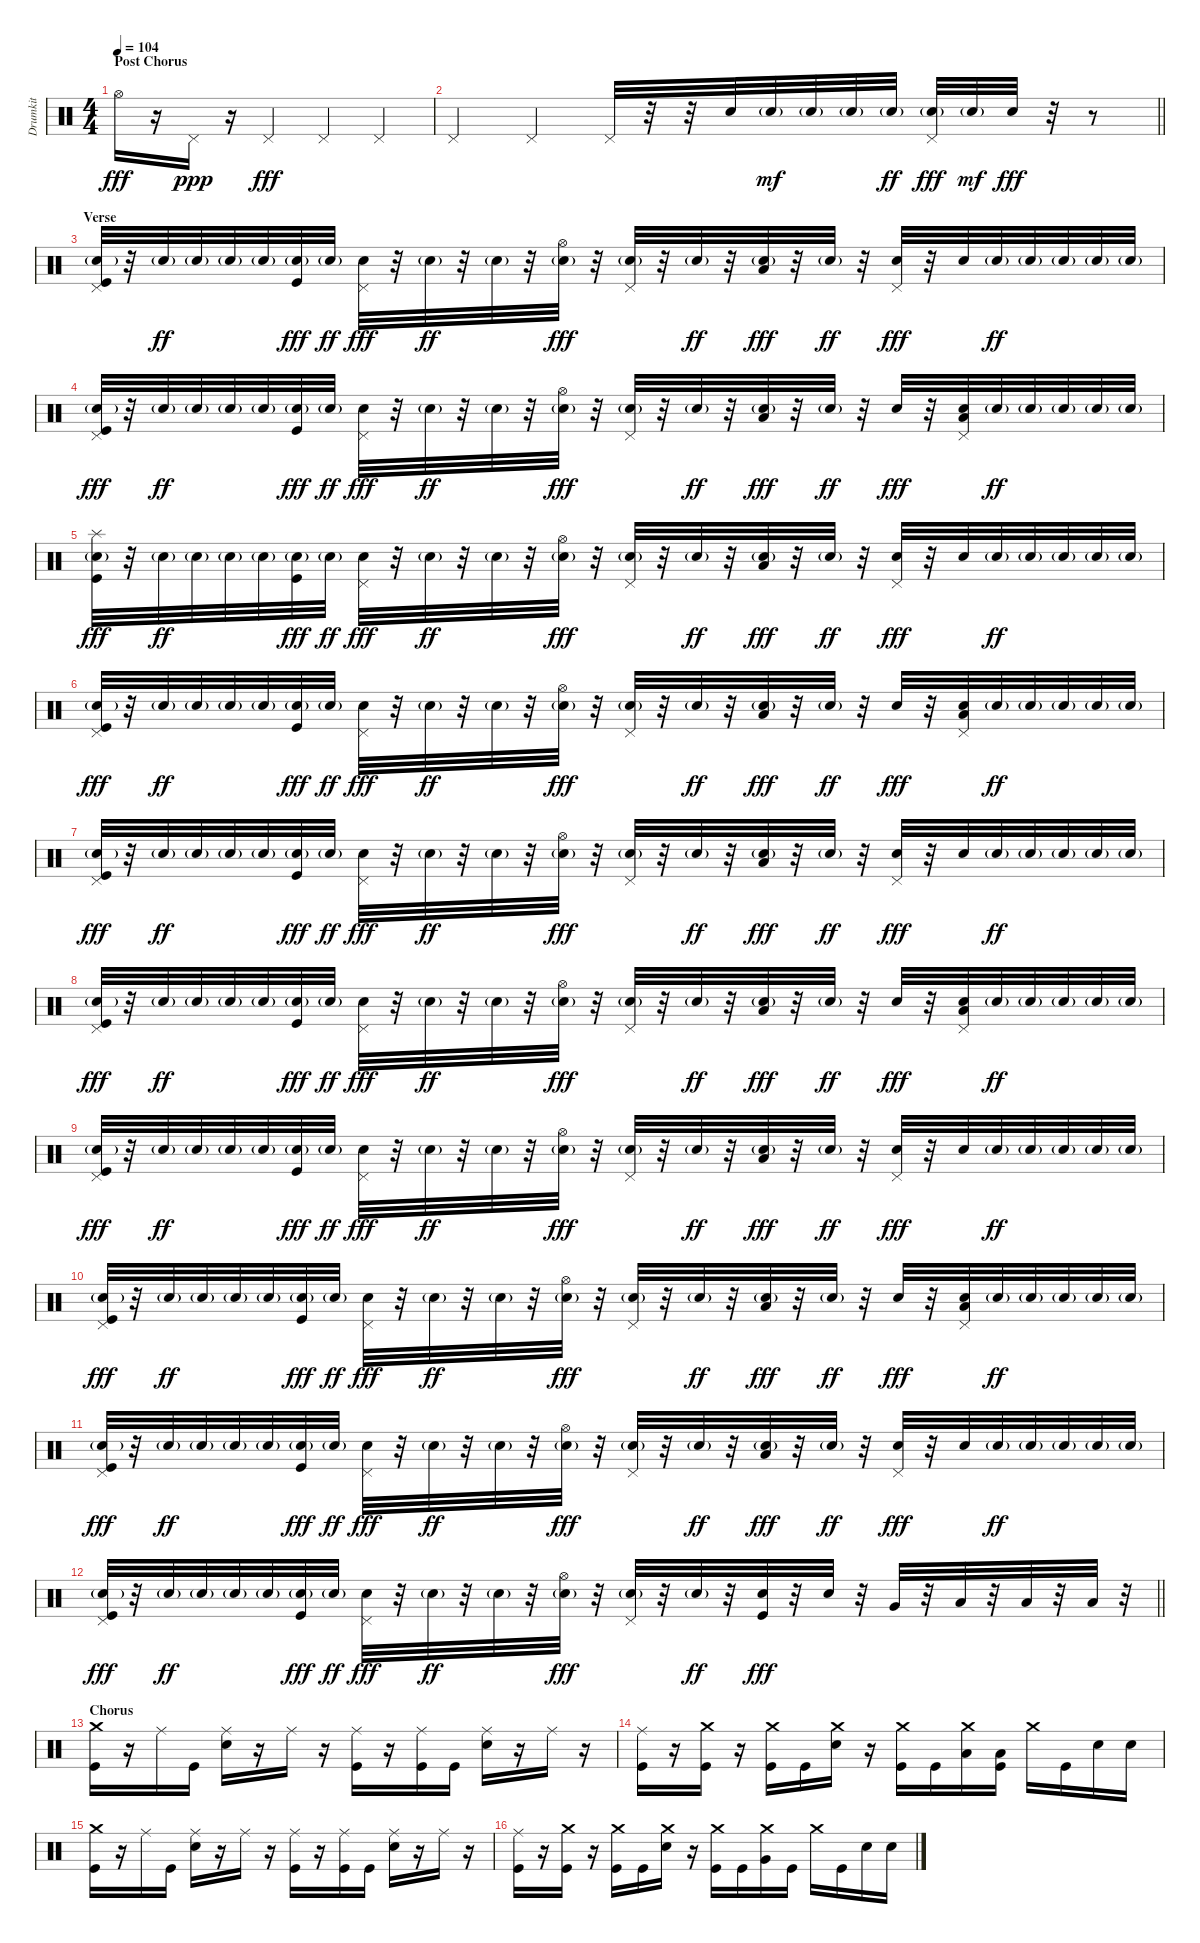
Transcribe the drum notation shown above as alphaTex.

\track ("Drumkit" "Drumkit") {instrument percussion}
\staff {score}
\articulation defaults
\ts (4 4)
\section ("" "Post Chorus")
\tempo 104
\clef neutral
\ks c "Hi-Hat (open)".16{dy fff}
r.16 "Pedal Hi-Hat (hit)".16{dy ppp} r.16 "Pedal Hi-Hat (hit)".4{dy fff} "Pedal Hi-Hat (hit)".4 "Pedal Hi-Hat (hit)".4 |
\barLineRight lightlight "Pedal Hi-Hat (hit)".4 "Pedal Hi-Hat (hit)".4 "Pedal Hi-Hat (hit)".32
r.32 r.32 "Snare (hit) 2".32 "Snare (hit) 2"{g}.32{dy mf} "Snare (hit) 2"{g}.32 "Snare (hit) 2"{g}.32 "Snare (hit) 2"{g}.32{dy ff} ("Pedal Hi-Hat (hit)" "Snare (hit) 2"{g}).32{dy fff} "Snare (hit) 2"{g}.32{dy mf} "Snare (hit) 2".32{dy fff} r.32 r.8 |
\section ("" "Verse")
("Pedal Hi-Hat (hit)" "Snare (hit) 2"{g} "Kick (hit)").32 r.32 "Snare (hit) 2"{g}.32{dy ff} "Snare (hit) 2"{g}.32 "Snare (hit) 2"{g}.32 "Snare (hit) 2"{g}.32 ("Snare (hit) 2"{g} "Kick (hit)").32{dy fff} "Snare (hit) 2"{g}.32{dy ff} ("Pedal Hi-Hat (hit)" "Snare (hit) 2").32{dy fff} r.32 "Snare (hit) 2"{g}.32{dy ff} r.32 "Snare (hit) 2"{g}.32 r.32 ("Hi-Hat (open)" "Snare (hit) 2"{g}).32{dy fff} r.32 ("Pedal Hi-Hat (hit)" "Snare (hit) 2"{g}).32 r.32 "Snare (hit) 2"{g}.32{dy ff} r.32 ("Low Tom (hit)" "Snare (hit) 2"{g}).32{dy fff} r.32 "Snare (hit) 2"{g}.32{dy ff} r.32 ("Pedal Hi-Hat (hit)" "Snare (hit) 2").32{dy fff} r.32 "Snare (hit) 2".32 "Snare (hit) 2"{g}.32{dy ff} "Snare (hit) 2"{g}.32 "Snare (hit) 2"{g}.32 "Snare (hit) 2"{g}.32 "Snare (hit) 2"{g}.32 |
("Pedal Hi-Hat (hit)" "Snare (hit) 2"{g} "Kick (hit)").32{dy fff} r.32 "Snare (hit) 2"{g}.32{dy ff} "Snare (hit) 2"{g}.32 "Snare (hit) 2"{g}.32 "Snare (hit) 2"{g}.32 ("Snare (hit) 2"{g} "Kick (hit)").32{dy fff} "Snare (hit) 2"{g}.32{dy ff} ("Pedal Hi-Hat (hit)" "Snare (hit) 2").32{dy fff} r.32 "Snare (hit) 2"{g}.32{dy ff} r.32 "Snare (hit) 2"{g}.32 r.32 ("Hi-Hat (open)" "Snare (hit) 2"{g}).32{dy fff} r.32 ("Pedal Hi-Hat (hit)" "Snare (hit) 2"{g}).32 r.32 "Snare (hit) 2"{g}.32{dy ff} r.32 ("Low Tom (hit)" "Snare (hit) 2"{g}).32{dy fff} r.32 "Snare (hit) 2"{g}.32{dy ff} r.32 "Snare (hit) 2".32{dy fff} r.32 ("Pedal Hi-Hat (hit)" "Low Floor Tom (hit)" "Snare (hit) 2").32 "Snare (hit) 2"{g}.32{dy ff} "Snare (hit) 2"{g}.32 "Snare (hit) 2"{g}.32 "Snare (hit) 2"{g}.32 "Snare (hit) 2"{g}.32 |
("Splash (hit)" "Snare (hit) 2"{g} "Kick (hit)").32{dy fff} r.32 "Snare (hit) 2"{g}.32{dy ff} "Snare (hit) 2"{g}.32 "Snare (hit) 2"{g}.32 "Snare (hit) 2"{g}.32 ("Snare (hit) 2"{g} "Kick (hit)").32{dy fff} "Snare (hit) 2"{g}.32{dy ff} ("Pedal Hi-Hat (hit)" "Snare (hit) 2").32{dy fff} r.32 "Snare (hit) 2"{g}.32{dy ff} r.32 "Snare (hit) 2"{g}.32 r.32 ("Hi-Hat (open)" "Snare (hit) 2"{g}).32{dy fff} r.32 ("Pedal Hi-Hat (hit)" "Snare (hit) 2"{g}).32 r.32 "Snare (hit) 2"{g}.32{dy ff} r.32 ("Low Tom (hit)" "Snare (hit) 2"{g}).32{dy fff} r.32 "Snare (hit) 2"{g}.32{dy ff} r.32 ("Pedal Hi-Hat (hit)" "Snare (hit) 2").32{dy fff} r.32 "Snare (hit) 2".32 "Snare (hit) 2"{g}.32{dy ff} "Snare (hit) 2"{g}.32 "Snare (hit) 2"{g}.32 "Snare (hit) 2"{g}.32 "Snare (hit) 2"{g}.32 |
("Pedal Hi-Hat (hit)" "Snare (hit) 2"{g} "Kick (hit)").32{dy fff} r.32 "Snare (hit) 2"{g}.32{dy ff} "Snare (hit) 2"{g}.32 "Snare (hit) 2"{g}.32 "Snare (hit) 2"{g}.32 ("Snare (hit) 2"{g} "Kick (hit)").32{dy fff} "Snare (hit) 2"{g}.32{dy ff} ("Pedal Hi-Hat (hit)" "Snare (hit) 2").32{dy fff} r.32 "Snare (hit) 2"{g}.32{dy ff} r.32 "Snare (hit) 2"{g}.32 r.32 ("Hi-Hat (open)" "Snare (hit) 2"{g}).32{dy fff} r.32 ("Pedal Hi-Hat (hit)" "Snare (hit) 2"{g}).32 r.32 "Snare (hit) 2"{g}.32{dy ff} r.32 ("Low Tom (hit)" "Snare (hit) 2"{g}).32{dy fff} r.32 "Snare (hit) 2"{g}.32{dy ff} r.32 "Snare (hit) 2".32{dy fff} r.32 ("Pedal Hi-Hat (hit)" "Low Floor Tom (hit)" "Snare (hit) 2").32 "Snare (hit) 2"{g}.32{dy ff} "Snare (hit) 2"{g}.32 "Snare (hit) 2"{g}.32 "Snare (hit) 2"{g}.32 "Snare (hit) 2"{g}.32 |
("Pedal Hi-Hat (hit)" "Snare (hit) 2"{g} "Kick (hit)").32{dy fff} r.32 "Snare (hit) 2"{g}.32{dy ff} "Snare (hit) 2"{g}.32 "Snare (hit) 2"{g}.32 "Snare (hit) 2"{g}.32 ("Snare (hit) 2"{g} "Kick (hit)").32{dy fff} "Snare (hit) 2"{g}.32{dy ff} ("Pedal Hi-Hat (hit)" "Snare (hit) 2").32{dy fff} r.32 "Snare (hit) 2"{g}.32{dy ff} r.32 "Snare (hit) 2"{g}.32 r.32 ("Hi-Hat (open)" "Snare (hit) 2"{g}).32{dy fff} r.32 ("Pedal Hi-Hat (hit)" "Snare (hit) 2"{g}).32 r.32 "Snare (hit) 2"{g}.32{dy ff} r.32 ("Low Tom (hit)" "Snare (hit) 2"{g}).32{dy fff} r.32 "Snare (hit) 2"{g}.32{dy ff} r.32 ("Pedal Hi-Hat (hit)" "Snare (hit) 2").32{dy fff} r.32 "Snare (hit) 2".32 "Snare (hit) 2"{g}.32{dy ff} "Snare (hit) 2"{g}.32 "Snare (hit) 2"{g}.32 "Snare (hit) 2"{g}.32 "Snare (hit) 2"{g}.32 |
("Pedal Hi-Hat (hit)" "Snare (hit) 2"{g} "Kick (hit)").32{dy fff} r.32 "Snare (hit) 2"{g}.32{dy ff} "Snare (hit) 2"{g}.32 "Snare (hit) 2"{g}.32 "Snare (hit) 2"{g}.32 ("Snare (hit) 2"{g} "Kick (hit)").32{dy fff} "Snare (hit) 2"{g}.32{dy ff} ("Pedal Hi-Hat (hit)" "Snare (hit) 2").32{dy fff} r.32 "Snare (hit) 2"{g}.32{dy ff} r.32 "Snare (hit) 2"{g}.32 r.32 ("Hi-Hat (open)" "Snare (hit) 2"{g}).32{dy fff} r.32 ("Pedal Hi-Hat (hit)" "Snare (hit) 2"{g}).32 r.32 "Snare (hit) 2"{g}.32{dy ff} r.32 ("Low Tom (hit)" "Snare (hit) 2"{g}).32{dy fff} r.32 "Snare (hit) 2"{g}.32{dy ff} r.32 "Snare (hit) 2".32{dy fff} r.32 ("Pedal Hi-Hat (hit)" "Low Floor Tom (hit)" "Snare (hit) 2").32 "Snare (hit) 2"{g}.32{dy ff} "Snare (hit) 2"{g}.32 "Snare (hit) 2"{g}.32 "Snare (hit) 2"{g}.32 "Snare (hit) 2"{g}.32 |
("Pedal Hi-Hat (hit)" "Snare (hit) 2"{g} "Kick (hit)").32{dy fff} r.32 "Snare (hit) 2"{g}.32{dy ff} "Snare (hit) 2"{g}.32 "Snare (hit) 2"{g}.32 "Snare (hit) 2"{g}.32 ("Snare (hit) 2"{g} "Kick (hit)").32{dy fff} "Snare (hit) 2"{g}.32{dy ff} ("Pedal Hi-Hat (hit)" "Snare (hit) 2").32{dy fff} r.32 "Snare (hit) 2"{g}.32{dy ff} r.32 "Snare (hit) 2"{g}.32 r.32 ("Hi-Hat (open)" "Snare (hit) 2"{g}).32{dy fff} r.32 ("Pedal Hi-Hat (hit)" "Snare (hit) 2"{g}).32 r.32 "Snare (hit) 2"{g}.32{dy ff} r.32 ("Low Tom (hit)" "Snare (hit) 2"{g}).32{dy fff} r.32 "Snare (hit) 2"{g}.32{dy ff} r.32 ("Pedal Hi-Hat (hit)" "Snare (hit) 2").32{dy fff} r.32 "Snare (hit) 2".32 "Snare (hit) 2"{g}.32{dy ff} "Snare (hit) 2"{g}.32 "Snare (hit) 2"{g}.32 "Snare (hit) 2"{g}.32 "Snare (hit) 2"{g}.32 |
("Pedal Hi-Hat (hit)" "Snare (hit) 2"{g} "Kick (hit)").32{dy fff} r.32 "Snare (hit) 2"{g}.32{dy ff} "Snare (hit) 2"{g}.32 "Snare (hit) 2"{g}.32 "Snare (hit) 2"{g}.32 ("Snare (hit) 2"{g} "Kick (hit)").32{dy fff} "Snare (hit) 2"{g}.32{dy ff} ("Pedal Hi-Hat (hit)" "Snare (hit) 2").32{dy fff} r.32 "Snare (hit) 2"{g}.32{dy ff} r.32 "Snare (hit) 2"{g}.32 r.32 ("Hi-Hat (open)" "Snare (hit) 2"{g}).32{dy fff} r.32 ("Pedal Hi-Hat (hit)" "Snare (hit) 2"{g}).32 r.32 "Snare (hit) 2"{g}.32{dy ff} r.32 ("Low Tom (hit)" "Snare (hit) 2"{g}).32{dy fff} r.32 "Snare (hit) 2"{g}.32{dy ff} r.32 "Snare (hit) 2".32{dy fff} r.32 ("Pedal Hi-Hat (hit)" "Low Floor Tom (hit)" "Snare (hit) 2").32 "Snare (hit) 2"{g}.32{dy ff} "Snare (hit) 2"{g}.32 "Snare (hit) 2"{g}.32 "Snare (hit) 2"{g}.32 "Snare (hit) 2"{g}.32 |
("Pedal Hi-Hat (hit)" "Snare (hit) 2"{g} "Kick (hit)").32{dy fff} r.32 "Snare (hit) 2"{g}.32{dy ff} "Snare (hit) 2"{g}.32 "Snare (hit) 2"{g}.32 "Snare (hit) 2"{g}.32 ("Snare (hit) 2"{g} "Kick (hit)").32{dy fff} "Snare (hit) 2"{g}.32{dy ff} ("Pedal Hi-Hat (hit)" "Snare (hit) 2").32{dy fff} r.32 "Snare (hit) 2"{g}.32{dy ff} r.32 "Snare (hit) 2"{g}.32 r.32 ("Hi-Hat (open)" "Snare (hit) 2"{g}).32{dy fff} r.32 ("Pedal Hi-Hat (hit)" "Snare (hit) 2"{g}).32 r.32 "Snare (hit) 2"{g}.32{dy ff} r.32 ("Low Tom (hit)" "Snare (hit) 2"{g}).32{dy fff} r.32 "Snare (hit) 2"{g}.32{dy ff} r.32 ("Pedal Hi-Hat (hit)" "Snare (hit) 2").32{dy fff} r.32 "Snare (hit) 2".32 "Snare (hit) 2"{g}.32{dy ff} "Snare (hit) 2"{g}.32 "Snare (hit) 2"{g}.32 "Snare (hit) 2"{g}.32 "Snare (hit) 2"{g}.32 |
\barLineRight lightlight
("Pedal Hi-Hat (hit)" "Snare (hit) 2"{g} "Kick (hit)").32{dy fff} r.32 "Snare (hit) 2"{g}.32{dy ff} "Snare (hit) 2"{g}.32 "Snare (hit) 2"{g}.32 "Snare (hit) 2"{g}.32 ("Snare (hit) 2"{g} "Kick (hit)").32{dy fff} "Snare (hit) 2"{g}.32{dy ff} ("Pedal Hi-Hat (hit)" "Snare (hit) 2").32{dy fff} r.32 "Snare (hit) 2"{g}.32{dy ff} r.32 "Snare (hit) 2"{g}.32 r.32 ("Hi-Hat (open)" "Snare (hit) 2"{g}).32{dy fff} r.32 ("Pedal Hi-Hat (hit)" "Snare (hit) 2"{g}).32 r.32 "Snare (hit) 2"{g}.32{dy ff} r.32 ("Snare (hit) 2" "Kick (hit)").32{dy fff} r.32 "Snare (hit) 2".32 r.32 "Very Low Tom (hit)".32 r.32 "Low Tom (hit)".32 r.32 "Low Floor Tom (hit)".32 r.32 "Low Floor Tom (hit)".32 r.32 |
\section ("" "Chorus")
("Crash medium (hit)" "Kick (hit)").16 r.16 "Ride (middle)".16 "Kick (hit)".16 ("Ride (middle)" "Snare (hit) 2").16 r.16 "Ride (middle)".16 r.16 ("Ride (middle)" "Kick (hit)").16 r.16 ("Ride (middle)" "Kick (hit)").16 "Kick (hit)".16 ("Ride (middle)" "Snare (hit) 2").16 r.16 "Ride (middle)".16 r.16 |
("Ride (middle)" "Kick (hit)").16 r.16 ("Crash medium (hit)" "Kick (hit)").16 r.16 ("Crash medium (hit)" "Kick (hit)").16 "Kick (hit)".16 ("Crash medium (hit)" "Snare (hit) 2").16 r.16 ("Crash medium (hit)" "Kick (hit)").16 "Kick (hit)".16 ("Crash medium (hit)" "Low Tom (hit)").16 ("Low Tom (hit)" "Kick (hit)").16 "Crash medium (hit)".16 "Kick (hit)".16 "Snare (hit) 2".16 "Snare (hit) 2".16 |
("Crash medium (hit)" "Kick (hit)").16 r.16 "Ride (middle)".16 "Kick (hit)".16 ("Ride (middle)" "Snare (hit) 2").16 r.16 "Ride (middle)".16 r.16 ("Ride (middle)" "Kick (hit)").16 r.16 ("Ride (middle)" "Kick (hit)").16 "Kick (hit)".16 ("Ride (middle)" "Snare (hit) 2").16 r.16 "Ride (middle)".16 r.16 |
("Ride (middle)" "Kick (hit)").16 r.16 ("Crash medium (hit)" "Kick (hit)").16 r.16 ("Crash medium (hit)" "Kick (hit)").16 "Kick (hit)".16 ("Crash medium (hit)" "Snare (hit) 2").16 r.16 ("Crash medium (hit)" "Kick (hit)").16 "Kick (hit)".16 ("Crash medium (hit)" "Very Low Tom (hit)").16 "Kick (hit)".16 "Crash medium (hit)".16 "Kick (hit)".16 "Snare (hit) 2".16 "Snare (hit) 2".16
